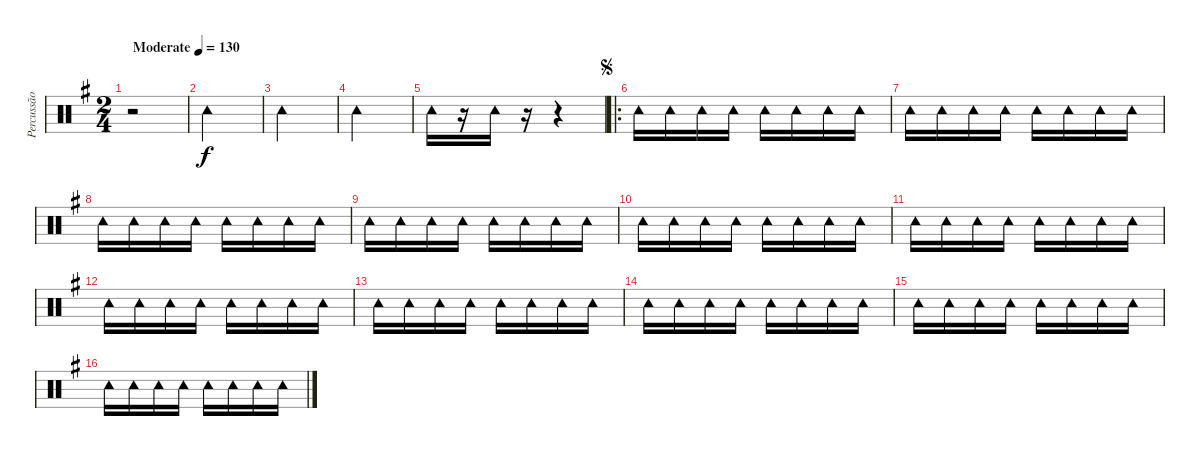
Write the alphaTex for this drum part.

\track ("Percussão" "Percussão") {instrument percussion}
\staff {score}
\articulation defaults
\ts (2 4)
\tempo (130 "Moderate")
\clef neutral
\ks g
r.2{dy f} |
"Tambourine (hit)".2 |
"Tambourine (hit)".2 |
"Tambourine (hit)".2 |
"Tambourine (hit)".16 r.16 "Tambourine (hit)".16 r.16 r.4 |
\ro
\jump segno "Tambourine (hit)".16 "Tambourine (hit)".16 "Tambourine (hit)".16 "Tambourine (hit)".16 "Tambourine (hit)".16 "Tambourine (hit)".16 "Tambourine (hit)".16 "Tambourine (hit)".16
|
"Tambourine (hit)".16 "Tambourine (hit)".16 "Tambourine (hit)".16 "Tambourine (hit)".16 "Tambourine (hit)".16 "Tambourine (hit)".16 "Tambourine (hit)".16 "Tambourine (hit)".16 |
"Tambourine (hit)".16 "Tambourine (hit)".16 "Tambourine (hit)".16 "Tambourine (hit)".16 "Tambourine (hit)".16 "Tambourine (hit)".16 "Tambourine (hit)".16 "Tambourine (hit)".16 |
"Tambourine (hit)".16 "Tambourine (hit)".16 "Tambourine (hit)".16 "Tambourine (hit)".16 "Tambourine (hit)".16 "Tambourine (hit)".16 "Tambourine (hit)".16 "Tambourine (hit)".16 |
"Tambourine (hit)".16 "Tambourine (hit)".16 "Tambourine (hit)".16 "Tambourine (hit)".16 "Tambourine (hit)".16 "Tambourine (hit)".16 "Tambourine (hit)".16 "Tambourine (hit)".16 |
"Tambourine (hit)".16 "Tambourine (hit)".16 "Tambourine (hit)".16 "Tambourine (hit)".16 "Tambourine (hit)".16 "Tambourine (hit)".16 "Tambourine (hit)".16 "Tambourine (hit)".16 |
"Tambourine (hit)".16 "Tambourine (hit)".16 "Tambourine (hit)".16 "Tambourine (hit)".16 "Tambourine (hit)".16 "Tambourine (hit)".16 "Tambourine (hit)".16 "Tambourine (hit)".16 |
"Tambourine (hit)".16 "Tambourine (hit)".16 "Tambourine (hit)".16 "Tambourine (hit)".16 "Tambourine (hit)".16 "Tambourine (hit)".16 "Tambourine (hit)".16 "Tambourine (hit)".16 |
"Tambourine (hit)".16 "Tambourine (hit)".16 "Tambourine (hit)".16 "Tambourine (hit)".16 "Tambourine (hit)".16 "Tambourine (hit)".16 "Tambourine (hit)".16 "Tambourine (hit)".16 |
"Tambourine (hit)".16 "Tambourine (hit)".16 "Tambourine (hit)".16 "Tambourine (hit)".16 "Tambourine (hit)".16 "Tambourine (hit)".16 "Tambourine (hit)".16 "Tambourine (hit)".16 |
"Tambourine (hit)".16 "Tambourine (hit)".16 "Tambourine (hit)".16 "Tambourine (hit)".16 "Tambourine (hit)".16 "Tambourine (hit)".16 "Tambourine (hit)".16 "Tambourine (hit)".16
